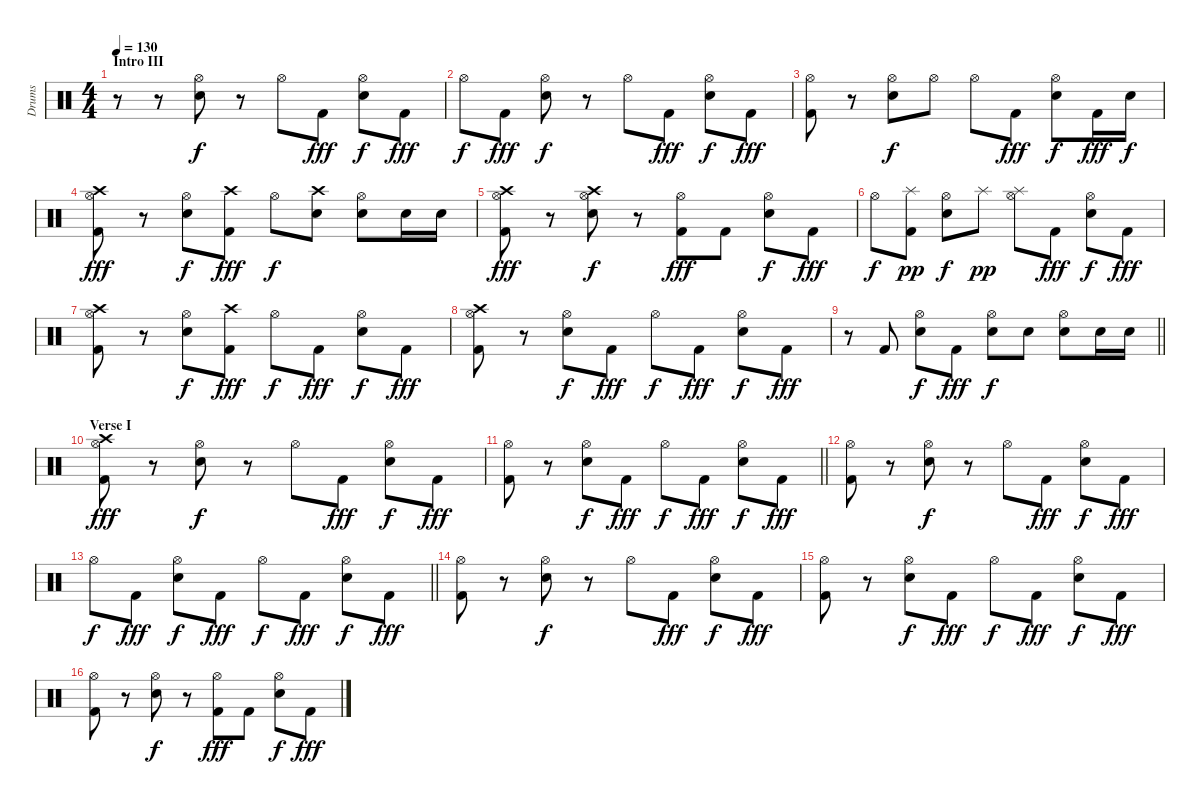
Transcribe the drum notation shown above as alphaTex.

\track ("Drums" "Drums") {instrument percussion}
\staff {score}
\articulation defaults
\ts (4 4)
\section ("" "Intro III")
\tempo 130
\clef neutral
\ks c
r.8{dy fff} r.8 ("Snare (hit) 2" "Hi-Hat (open)").8{dy f} r.8 "Hi-Hat (open)".8 "Kick (hit) 2".8{dy fff} ("Snare (hit) 2" "Hi-Hat (open)").8{dy f} "Kick (hit) 2".8{dy fff} |
"Hi-Hat (open)".8{dy f} "Kick (hit) 2".8{dy fff} ("Snare (hit) 2" "Hi-Hat (open)").8{dy f} r.8 "Hi-Hat (open)".8 "Kick (hit) 2".8{dy fff} ("Snare (hit) 2" "Hi-Hat (open)").8{dy f} "Kick (hit) 2".8{dy fff} |
("Kick (hit) 2" "Hi-Hat (open)").8 r.8 ("Snare (hit) 2" "Hi-Hat (open)").8{dy f} "Hi-Hat (open)".8 "Hi-Hat (open)".8 "Kick (hit) 2".8{dy fff} ("Snare (hit) 2" "Hi-Hat (open)").8{dy f} "Kick (hit) 2".16{dy fff} "Snare (hit) 2".16{dy f} |
("Kick (hit) 2" "Crash high (hit)" "Hi-Hat (open)").8{dy fff} r.8 ("Snare (hit) 2" "Hi-Hat (open)").8{dy f} ("Kick (hit) 2" "Crash high (hit)").8{dy fff} "Hi-Hat (open)".8{dy f} ("Snare (hit) 2" "Crash high (hit)").8 ("Snare (hit) 2" "Hi-Hat (open)").8 "Snare (hit) 2".16 "Snare (hit) 2".16 |
("Kick (hit) 2" "Crash high (hit)" "Hi-Hat (open)").8{dy fff} r.8 ("Snare (hit) 2" "Crash high (hit)" "Hi-Hat (open)").8{dy f} r.8 ("Kick (hit) 2" "Hi-Hat (open)").8{dy fff} "Kick (hit) 2".8 ("Snare (hit) 2" "Hi-Hat (open)").8{dy f} "Kick (hit) 2".8{dy fff} |
"Hi-Hat (open)".8{dy f} ("Kick (hit) 2" "Splash (hit)").8{dy pp} ("Snare (hit) 2" "Hi-Hat (open)").8{dy f} "Splash (hit)".8{dy pp} ("Splash (hit)" "Hi-Hat (open)").8 "Kick (hit) 2".8{dy fff} ("Snare (hit) 2" "Hi-Hat (open)").8{dy f} "Kick (hit) 2".8{dy fff} |
("Kick (hit) 2" "Crash high (hit)" "Hi-Hat (open)").8 r.8 ("Snare (hit) 2" "Hi-Hat (open)").8{dy f} ("Kick (hit) 2" "Crash high (hit)").8{dy fff} "Hi-Hat (open)".8{dy f} "Kick (hit) 2".8{dy fff} ("Snare (hit) 2" "Hi-Hat (open)").8{dy f} "Kick (hit) 2".8{dy fff} |
("Kick (hit) 2" "Crash high (hit)" "Hi-Hat (open)").8 r.8 ("Snare (hit) 2" "Hi-Hat (open)").8{dy f} "Kick (hit) 2".8{dy fff} "Hi-Hat (open)".8{dy f} "Kick (hit) 2".8{dy fff} ("Snare (hit) 2" "Hi-Hat (open)").8{dy f} "Kick (hit) 2".8{dy fff} |
\barLineRight lightlight
r.8 "Kick (hit) 2".8 ("Snare (hit) 2" "Hi-Hat (open)").8{dy f} "Kick (hit) 2".8{dy fff} ("Snare (hit) 2" "Hi-Hat (open)").8{dy f} "Snare (hit) 2".8 ("Snare (hit) 2" "Hi-Hat (open)").8 "Snare (hit) 2".16 "Snare (hit) 2".16 |
\section ("" "Verse I")
("Kick (hit) 2" "Crash high (hit)" "Hi-Hat (open)").8{dy fff} r.8 ("Snare (hit) 2" "Hi-Hat (open)").8{dy f} r.8 "Hi-Hat (open)".8 "Kick (hit) 2".8{dy fff} ("Snare (hit) 2" "Hi-Hat (open)").8{dy f} "Kick (hit) 2".8{dy fff} |
\barLineRight lightlight
("Kick (hit) 2" "Hi-Hat (open)").8 r.8 ("Snare (hit) 2" "Hi-Hat (open)").8{dy f} "Kick (hit) 2".8{dy fff} "Hi-Hat (open)".8{dy f} "Kick (hit) 2".8{dy fff} ("Snare (hit) 2" "Hi-Hat (open)").8{dy f} "Kick (hit) 2".8{dy fff} |
("Kick (hit) 2" "Hi-Hat (open)").8 r.8 ("Snare (hit) 2" "Hi-Hat (open)").8{dy f} r.8 "Hi-Hat (open)".8 "Kick (hit) 2".8{dy fff} ("Snare (hit) 2" "Hi-Hat (open)").8{dy f} "Kick (hit) 2".8{dy fff} |
\barLineRight lightlight "Hi-Hat (open)".8{dy f} "Kick (hit) 2".8{dy fff}
("Snare (hit) 2" "Hi-Hat (open)").8{dy f} "Kick (hit) 2".8{dy fff} "Hi-Hat (open)".8{dy f} "Kick (hit) 2".8{dy fff} ("Snare (hit) 2" "Hi-Hat (open)").8{dy f} "Kick (hit) 2".8{dy fff} |
("Kick (hit) 2" "Hi-Hat (open)").8 r.8 ("Snare (hit) 2" "Hi-Hat (open)").8{dy f} r.8 "Hi-Hat (open)".8 "Kick (hit) 2".8{dy fff} ("Snare (hit) 2" "Hi-Hat (open)").8{dy f} "Kick (hit) 2".8{dy fff} |
("Kick (hit) 2" "Hi-Hat (open)").8 r.8 ("Snare (hit) 2" "Hi-Hat (open)").8{dy f} "Kick (hit) 2".8{dy fff} "Hi-Hat (open)".8{dy f} "Kick (hit) 2".8{dy fff} ("Snare (hit) 2" "Hi-Hat (open)").8{dy f} "Kick (hit) 2".8{dy fff} |
("Kick (hit) 2" "Hi-Hat (open)").8 r.8 ("Snare (hit) 2" "Hi-Hat (open)").8{dy f} r.8 ("Kick (hit) 2" "Hi-Hat (open)").8{dy fff} "Kick (hit) 2".8 ("Snare (hit) 2" "Hi-Hat (open)").8{dy f} "Kick (hit) 2".8{dy fff}
